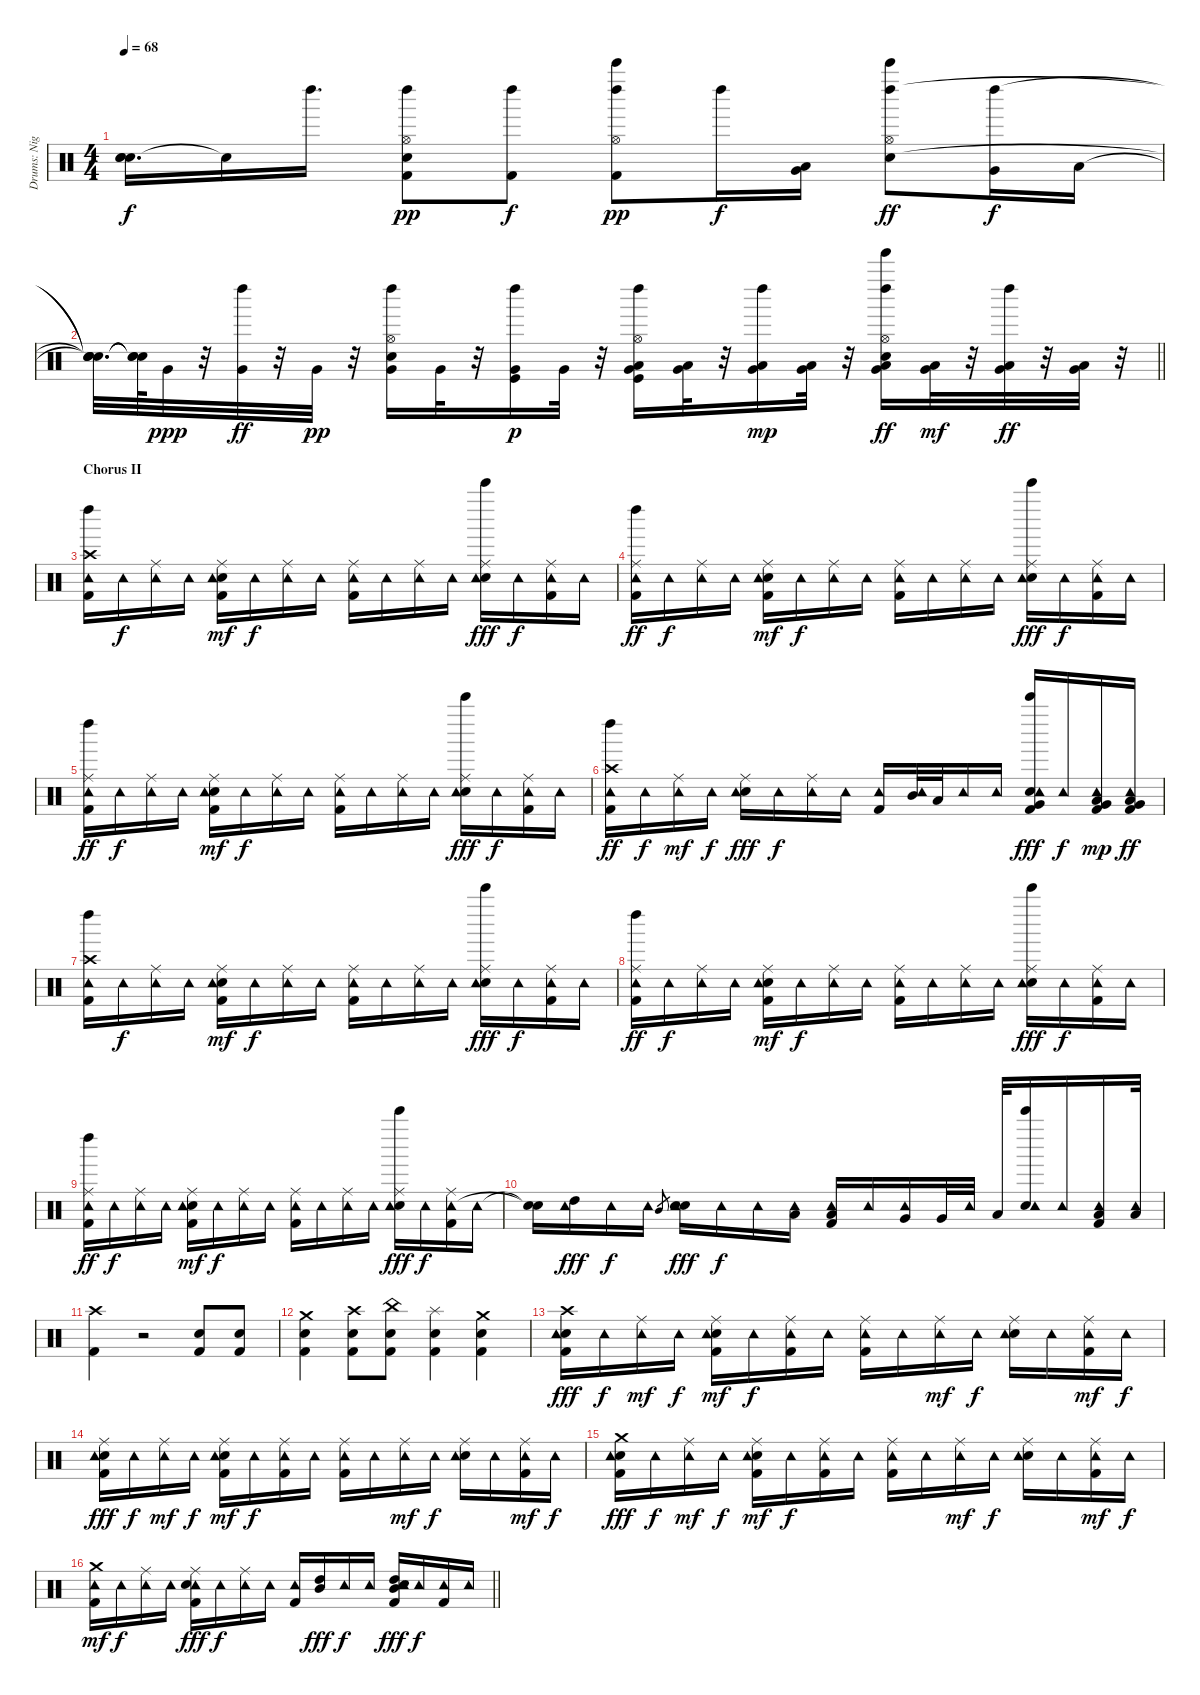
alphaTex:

\track ("Drums: Nigel Olsson" "Drums: Nig") {instrument percussion}
\staff {score}
\articulation defaults
\ts (4 4)
\tempo 68
\clef neutral
\ks c
("Snare (hit)"{t} "Snare (hit)"{t} "Snare (hit)"{t}).16{d dy f} "Snare (hit)"{t}.16 "Left Maraca (hit)".16{d} ("Hi-Hat (open)" "Snare (hit) 2" "Kick (hit) 2" "Left Maraca (hit)").8{dy pp} ("Kick (hit) 2" "Left Maraca (hit)").8{dy f} ("Bell Tree (hit)" "Hi-Hat (open)" "Kick (hit) 2" "Left Maraca (hit)").8{dy pp} "Left Maraca (hit)".16{dy f} ("Low Tom (hit)" "Very Low Tom (hit)").16 ("Bell Tree (hit)" "Hi-Hat (open)" "Snare (hit) 2" "Left Maraca (hit)").8{dy ff} ("Very Low Tom (hit)" "Left Maraca (hit)").16{dy f} "Low Floor Tom (hit)".16 |
\barLineRight lightlight
("Snare (hit)"{t} "Snare (hit)"{t} "Snare (hit)"{t} "Snare (hit)"{t}).32{d} ("Snare (hit)"{t} "Snare (hit)"{t} "Snare (hit)"{t}).64 "Very Low Tom (hit)".32{dy ppp} r.32 ("Very Low Tom (hit)" "Left Maraca (hit)").32{dy ff} r.32 "Very Low Tom (hit)".32{dy pp} r.32 ("Snare (hit) 2" "Hi-Hat (open)" "Left Maraca (hit)" "Very Low Tom (hit)").16 "Very Low Tom (hit)".32 r.32 ("Kick (hit)" "Left Maraca (hit)" "Very Low Tom (hit)").16{dy p} "Very Low Tom (hit)".32 r.32 ("Low Floor Tom (hit)" "Kick (hit)" "Hi-Hat (open)" "Left Maraca (hit)" "Very Low Tom (hit)").16 ("Low Floor Tom (hit)" "Very Low Tom (hit)").32 r.32 ("Left Maraca (hit)" "Low Floor Tom (hit)" "Very Low Tom (hit)").16{dy mp} ("Low Floor Tom (hit)" "Very Low Tom (hit)").32 r.32 ("Very Low Tom (hit)" "Snare (hit) 2" "Hi-Hat (open)" "Left Maraca (hit)" "Tinkle Bell (hit)" "Low Floor Tom (hit)").16{dy ff} ("Low Floor Tom (hit)" "Very Low Tom (hit)").32{dy mf} r.32 ("Very Low Tom (hit)" "Left Maraca (hit)" "Low Floor Tom (hit)").32{dy ff} r.32 ("Very Low Tom (hit)" "Low Floor Tom (hit)").32 r.32 |
\section ("" "Chorus II")
("Crash high (hit)" "Tambourine (hit)" "Kick (hit) 2" "Left Maraca (hit)").16 "Tambourine (hit)".16{dy f} ("Ride (middle)" "Tambourine (hit)").16 "Tambourine (hit)".16 ("Ride (middle)" "Snare (hit) 2" "Tambourine (hit)" "Kick (hit) 2").16{dy mf} "Tambourine (hit)".16{dy f} ("Ride (middle)" "Tambourine (hit)").16 "Tambourine (hit)".16 ("Ride (middle)" "Tambourine (hit)" "Kick (hit) 2").16 "Tambourine (hit)".16 ("Ride (middle)" "Tambourine (hit)").16 "Tambourine (hit)".16 ("Ride (middle)" "Snare (hit) 2" "Tambourine (hit)" "Bell Tree (hit)").16{dy fff} "Tambourine (hit)".16{dy f} ("Ride (middle)" "Tambourine (hit)" "Kick (hit) 2").16 "Tambourine (hit)".16 |
("Ride (middle)" "Tambourine (hit)" "Kick (hit) 2" "Left Maraca (hit)").16{dy ff} "Tambourine (hit)".16{dy f} ("Ride (middle)" "Tambourine (hit)").16 "Tambourine (hit)".16 ("Ride (middle)" "Snare (hit) 2" "Tambourine (hit)" "Kick (hit) 2").16{dy mf} "Tambourine (hit)".16{dy f} ("Ride (middle)" "Tambourine (hit)").16 "Tambourine (hit)".16 ("Ride (middle)" "Tambourine (hit)" "Kick (hit) 2").16 "Tambourine (hit)".16 ("Ride (middle)" "Tambourine (hit)").16 "Tambourine (hit)".16 ("Ride (middle)" "Snare (hit) 2" "Tambourine (hit)" "Bell Tree (hit)").16{dy fff} "Tambourine (hit)".16{dy f} ("Ride (middle)" "Tambourine (hit)" "Kick (hit) 2").16 "Tambourine (hit)".16 |
("Ride (middle)" "Tambourine (hit)" "Kick (hit) 2" "Left Maraca (hit)").16{dy ff} "Tambourine (hit)".16{dy f} ("Ride (middle)" "Tambourine (hit)").16 "Tambourine (hit)".16 ("Ride (middle)" "Snare (hit) 2" "Tambourine (hit)" "Kick (hit) 2").16{dy mf} "Tambourine (hit)".16{dy f} ("Ride (middle)" "Tambourine (hit)").16 "Tambourine (hit)".16 ("Ride (middle)" "Tambourine (hit)" "Kick (hit) 2").16 "Tambourine (hit)".16 ("Ride (middle)" "Tambourine (hit)").16 "Tambourine (hit)".16 ("Ride (middle)" "Snare (hit) 2" "Tambourine (hit)" "Bell Tree (hit)").16{dy fff} "Tambourine (hit)".16{dy f} ("Ride (middle)" "Tambourine (hit)" "Kick (hit) 2").16 "Tambourine (hit)".16 |
("Crash high (hit)" "Tambourine (hit)" "Kick (hit) 2" "Left Maraca (hit)").16{dy ff} "Tambourine (hit)".16{dy f} ("Ride (middle)" "Tambourine (hit)").16{dy mf} "Tambourine (hit)".16{dy f} ("Ride (middle)" "Snare (hit) 2" "Tambourine (hit)").16{dy fff} "Tambourine (hit)".16{dy f} ("Ride (middle)" "Tambourine (hit)").16 "Tambourine (hit)".16 ("Tambourine (hit)" "Kick (hit) 2").16 ("Tambourine (hit)" "Mid Tom (hit)").32 "Low Tom (hit)".32 "Tambourine (hit)".16 "Tambourine (hit)".16 ("Very Low Tom (hit)" "Bell Tree (hit)" "Snare (hit) 2" "Tambourine (hit)" "Kick (hit) 2").16{dy fff} "Tambourine (hit)".16{dy f} ("Very Low Tom (hit)" "Tambourine (hit)" "Kick (hit) 2" "Low Floor Tom (hit)").16{dy mp} ("Very Low Tom (hit)" "Tambourine (hit)" "Kick (hit) 2" "Low Floor Tom (hit)").16{dy ff} |
("Crash high (hit)" "Tambourine (hit)" "Kick (hit) 2" "Left Maraca (hit)").16 "Tambourine (hit)".16{dy f} ("Ride (middle)" "Tambourine (hit)").16 "Tambourine (hit)".16 ("Ride (middle)" "Snare (hit) 2" "Tambourine (hit)" "Kick (hit) 2").16{dy mf} "Tambourine (hit)".16{dy f} ("Ride (middle)" "Tambourine (hit)").16 "Tambourine (hit)".16 ("Ride (middle)" "Tambourine (hit)" "Kick (hit) 2").16 "Tambourine (hit)".16 ("Ride (middle)" "Tambourine (hit)").16 "Tambourine (hit)".16 ("Ride (middle)" "Snare (hit) 2" "Tambourine (hit)" "Bell Tree (hit)").16{dy fff} "Tambourine (hit)".16{dy f} ("Ride (middle)" "Tambourine (hit)" "Kick (hit) 2").16 "Tambourine (hit)".16 |
("Ride (middle)" "Tambourine (hit)" "Kick (hit) 2" "Left Maraca (hit)").16{dy ff} "Tambourine (hit)".16{dy f} ("Ride (middle)" "Tambourine (hit)").16 "Tambourine (hit)".16 ("Ride (middle)" "Snare (hit) 2" "Tambourine (hit)" "Kick (hit) 2").16{dy mf} "Tambourine (hit)".16{dy f} ("Ride (middle)" "Tambourine (hit)").16 "Tambourine (hit)".16 ("Ride (middle)" "Tambourine (hit)" "Kick (hit) 2").16 "Tambourine (hit)".16 ("Ride (middle)" "Tambourine (hit)").16 "Tambourine (hit)".16 ("Ride (middle)" "Snare (hit) 2" "Tambourine (hit)" "Bell Tree (hit)").16{dy fff} "Tambourine (hit)".16{dy f} ("Ride (middle)" "Tambourine (hit)" "Kick (hit) 2").16 "Tambourine (hit)".16 |
("Ride (middle)" "Tambourine (hit)" "Kick (hit) 2" "Left Maraca (hit)").16{dy ff} "Tambourine (hit)".16{dy f} ("Ride (middle)" "Tambourine (hit)").16 "Tambourine (hit)".16 ("Ride (middle)" "Snare (hit) 2" "Tambourine (hit)" "Kick (hit) 2").16{dy mf} "Tambourine (hit)".16{dy f} ("Ride (middle)" "Tambourine (hit)").16 "Tambourine (hit)".16 ("Ride (middle)" "Tambourine (hit)" "Kick (hit) 2").16 "Tambourine (hit)".16 ("Ride (middle)" "Tambourine (hit)").16 "Tambourine (hit)".16 ("Ride (middle)" "Snare (hit) 2" "Tambourine (hit)" "Bell Tree (hit)").16{dy fff} "Tambourine (hit)".16{dy f} ("Ride (middle)" "Tambourine (hit)" "Kick (hit) 2").16 "Tambourine (hit)".16 |
("Snare (hit)"{t} "Snare (hit)"{t}).16 ("High Tom (hit)" "Tambourine (hit)").16{dy fff} "Tambourine (hit)".16{dy f} "Tambourine (hit)".16 "Mid Tom (hit)".8{gr} ("Snare (hit) 2" "Snare (hit) 2" "Tambourine (hit)").16{dy fff} "Tambourine (hit)".16{dy f} "Tambourine (hit)".16 ("Low Tom (hit)" "Tambourine (hit)").16 ("Low Tom (hit)" "Tambourine (hit)" "Kick (hit) 2").16 "Tambourine (hit)".16 ("Very Low Tom (hit)" "Tambourine (hit)").16 "Very Low Tom (hit)".32 "Tambourine (hit)".32 "Low Floor Tom (hit)".32 ("Snare (hit) 2" "Tambourine (hit)" "Bell Tree (hit)").16 "Tambourine (hit)".16 ("Low Floor Tom (hit)" "Tambourine (hit)" "Kick (hit) 2").16 ("Low Floor Tom (hit)" "Tambourine (hit)").32 |
("Crash high (hit)" "Kick (hit) 2").4 r.2 ("Snare (hit) 2" "Kick (hit) 2").8 ("Snare (hit) 2" "Kick (hit) 2").8 |
("Crash medium (hit)" "Snare (hit) 2" "Kick (hit) 2").4 ("Crash high (hit)" "Snare (hit) 2" "Kick (hit) 2").8 ("China (hit)" "Snare (hit) 2" "Kick (hit) 2").8 ("Splash (hit)" "Snare (hit) 2" "Kick (hit) 2").4 ("Crash medium (hit)" "Snare (hit) 2" "Kick (hit) 2").4 |
("Crash high (hit)" "Snare (hit) 2" "Tambourine (hit)" "Kick (hit) 2").16{dy fff} "Tambourine (hit)".16{dy f} ("Ride (middle)" "Tambourine (hit)").16{dy mf} "Tambourine (hit)".16{dy f} ("Ride (middle)" "Snare (hit) 2" "Tambourine (hit)" "Kick (hit) 2").16{dy mf} "Tambourine (hit)".16{dy f} ("Ride (middle)" "Tambourine (hit)" "Kick (hit) 2").16 "Tambourine (hit)".16 ("Ride (middle)" "Tambourine (hit)" "Kick (hit) 2").16 "Tambourine (hit)".16 ("Ride (middle)" "Tambourine (hit)").16{dy mf} "Tambourine (hit)".16{dy f} ("Ride (middle)" "Snare (hit) 2" "Tambourine (hit)").16 "Tambourine (hit)".16 ("Ride (middle)" "Tambourine (hit)" "Kick (hit) 2").16{dy mf} "Tambourine (hit)".16{dy f} |
("Ride (middle)" "Snare (hit) 2" "Tambourine (hit)" "Kick (hit) 2").16{dy fff} "Tambourine (hit)".16{dy f} ("Ride (middle)" "Tambourine (hit)").16{dy mf} "Tambourine (hit)".16{dy f} ("Ride (middle)" "Snare (hit) 2" "Tambourine (hit)" "Kick (hit) 2").16{dy mf} "Tambourine (hit)".16{dy f} ("Ride (middle)" "Tambourine (hit)" "Kick (hit) 2").16 "Tambourine (hit)".16 ("Ride (middle)" "Tambourine (hit)" "Kick (hit) 2").16 "Tambourine (hit)".16 ("Ride (middle)" "Tambourine (hit)").16{dy mf} "Tambourine (hit)".16{dy f} ("Ride (middle)" "Snare (hit) 2" "Tambourine (hit)").16 "Tambourine (hit)".16 ("Ride (middle)" "Tambourine (hit)" "Kick (hit) 2").16{dy mf} "Tambourine (hit)".16{dy f} |
("Crash medium (hit)" "Snare (hit) 2" "Tambourine (hit)" "Kick (hit) 2").16{dy fff} "Tambourine (hit)".16{dy f} ("Ride (middle)" "Tambourine (hit)").16{dy mf} "Tambourine (hit)".16{dy f} ("Ride (middle)" "Snare (hit) 2" "Tambourine (hit)" "Kick (hit) 2").16{dy mf} "Tambourine (hit)".16{dy f} ("Ride (middle)" "Tambourine (hit)" "Kick (hit) 2").16 "Tambourine (hit)".16 ("Ride (middle)" "Tambourine (hit)" "Kick (hit) 2").16 "Tambourine (hit)".16 ("Ride (middle)" "Tambourine (hit)").16{dy mf} "Tambourine (hit)".16{dy f} ("Ride (middle)" "Snare (hit) 2" "Tambourine (hit)").16 "Tambourine (hit)".16 ("Ride (middle)" "Tambourine (hit)" "Kick (hit) 2").16{dy mf} "Tambourine (hit)".16{dy f} |
\barLineRight lightlight
("Crash medium (hit)" "Tambourine (hit)" "Kick (hit) 2").16{dy mf} "Tambourine (hit)".16{dy f} ("Ride (middle)" "Tambourine (hit)").16 "Tambourine (hit)".16 ("Ride (middle)" "Tambourine (hit)" "Snare (hit) 2" "Kick (hit) 2").16{dy fff} "Tambourine (hit)".16{dy f} ("Ride (middle)" "Tambourine (hit)").16 "Tambourine (hit)".16 ("Tambourine (hit)" "Kick (hit) 2").16 ("High Tom (hit)" "Mid Tom (hit)").16{dy fff} "Tambourine (hit)".16{dy f} "Tambourine (hit)".16 ("High Tom (hit)" "Mid Tom (hit)" "Tambourine (hit)" "Snare (hit) 2" "Kick (hit) 2").16{dy fff} "Tambourine (hit)".16{dy f} ("Tambourine (hit)" "Kick (hit) 2").16 "Tambourine (hit)".16
